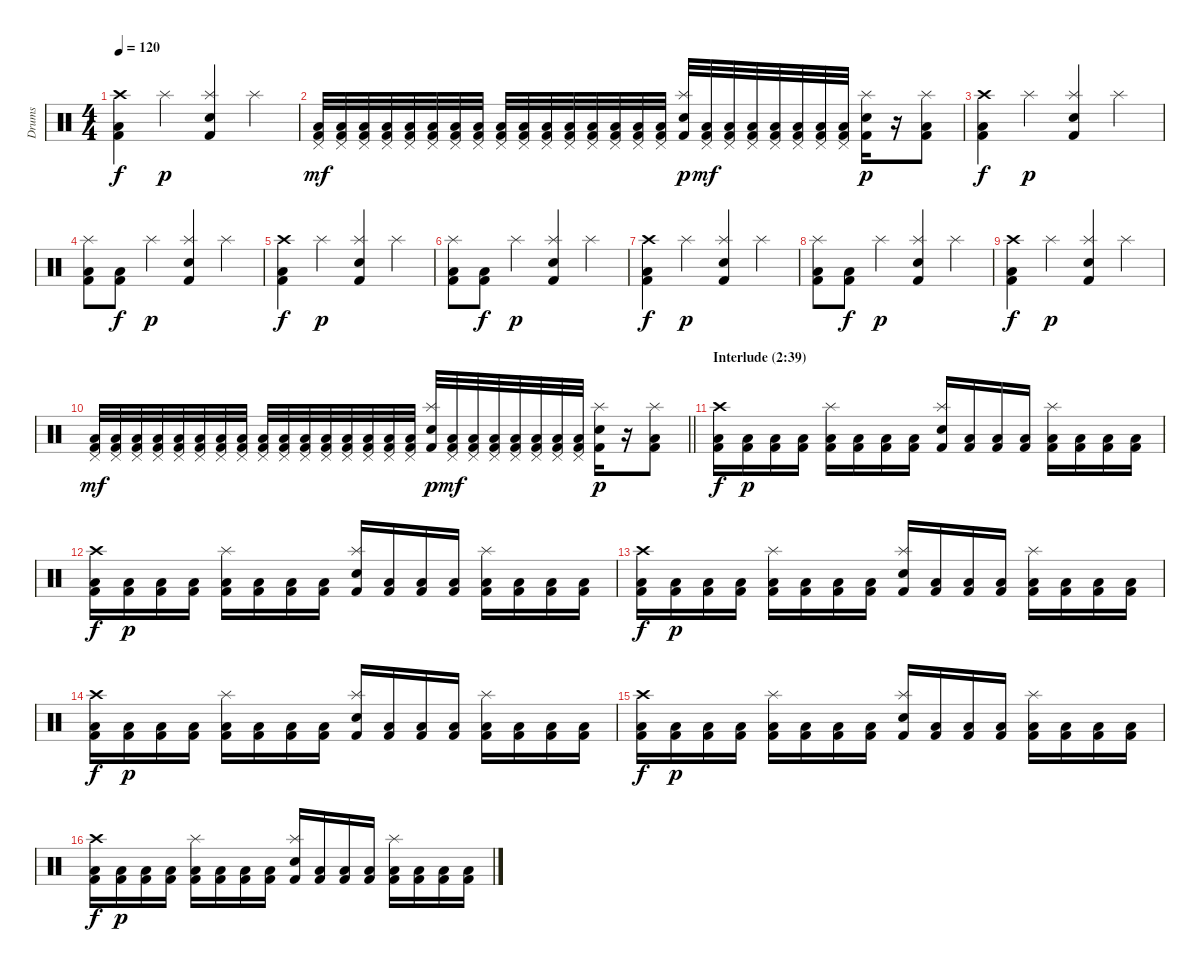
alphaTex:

\track ("Drums" "Drums") {instrument percussion}
\staff {score}
\articulation defaults
\ts (4 4)
\tempo 120
\clef neutral
\ks c
("Crash high (hit)" "Low Floor Tom (hit)" "Kick (hit) 2").4{dy f} "Splash (hit)".4{dy p} ("Splash (hit)" "Snare (hit) 2" "Kick (hit) 2").4 "Splash (hit)".4 |
("Pedal Hi-Hat (hit)" "Low Floor Tom (hit)" "Kick (hit) 2").32{dy mf} ("Pedal Hi-Hat (hit)" "Low Floor Tom (hit)" "Kick (hit) 2").32 ("Pedal Hi-Hat (hit)" "Low Floor Tom (hit)" "Kick (hit) 2").32 ("Pedal Hi-Hat (hit)" "Low Floor Tom (hit)" "Kick (hit) 2").32 ("Pedal Hi-Hat (hit)" "Low Floor Tom (hit)" "Kick (hit) 2").32 ("Pedal Hi-Hat (hit)" "Low Floor Tom (hit)" "Kick (hit) 2").32 ("Pedal Hi-Hat (hit)" "Low Floor Tom (hit)" "Kick (hit) 2").32 ("Pedal Hi-Hat (hit)" "Low Floor Tom (hit)" "Kick (hit) 2").32 ("Pedal Hi-Hat (hit)" "Low Floor Tom (hit)" "Kick (hit) 2").32 ("Pedal Hi-Hat (hit)" "Low Floor Tom (hit)" "Kick (hit) 2").32 ("Pedal Hi-Hat (hit)" "Low Floor Tom (hit)" "Kick (hit) 2").32 ("Pedal Hi-Hat (hit)" "Low Floor Tom (hit)" "Kick (hit) 2").32 ("Pedal Hi-Hat (hit)" "Low Floor Tom (hit)" "Kick (hit) 2").32 ("Pedal Hi-Hat (hit)" "Low Floor Tom (hit)" "Kick (hit) 2").32 ("Pedal Hi-Hat (hit)" "Low Floor Tom (hit)" "Kick (hit) 2").32 ("Pedal Hi-Hat (hit)" "Low Floor Tom (hit)" "Kick (hit) 2").32 ("Splash (hit)" "Snare (hit) 2" "Kick (hit) 2").32{dy p} ("Pedal Hi-Hat (hit)" "Low Floor Tom (hit)" "Kick (hit) 2").32{dy mf} ("Pedal Hi-Hat (hit)" "Low Floor Tom (hit)" "Kick (hit) 2").32 ("Pedal Hi-Hat (hit)" "Low Floor Tom (hit)" "Kick (hit) 2").32 ("Pedal Hi-Hat (hit)" "Low Floor Tom (hit)" "Kick (hit) 2").32 ("Pedal Hi-Hat (hit)" "Low Floor Tom (hit)" "Kick (hit) 2").32 ("Pedal Hi-Hat (hit)" "Low Floor Tom (hit)" "Kick (hit) 2").32 ("Pedal Hi-Hat (hit)" "Low Floor Tom (hit)" "Kick (hit) 2").32 ("Splash (hit)" "Snare (hit) 2" "Kick (hit) 2").16{dy p} r.16 ("Splash (hit)" "Low Floor Tom (hit)" "Kick (hit) 2").8 |
("Crash high (hit)" "Low Floor Tom (hit)" "Kick (hit) 2").4{dy f} "Splash (hit)".4{dy p} ("Splash (hit)" "Snare (hit) 2" "Kick (hit) 2").4 "Splash (hit)".4 |
("Splash (hit)" "Low Floor Tom (hit)" "Kick (hit) 2").8 ("Low Floor Tom (hit)" "Kick (hit) 2").8{dy f} "Splash (hit)".4{dy p} ("Splash (hit)" "Snare (hit) 2" "Kick (hit) 2").4 "Splash (hit)".4 |
("Crash high (hit)" "Low Floor Tom (hit)" "Kick (hit) 2").4{dy f} "Splash (hit)".4{dy p} ("Splash (hit)" "Snare (hit) 2" "Kick (hit) 2").4 "Splash (hit)".4 |
("Splash (hit)" "Low Floor Tom (hit)" "Kick (hit) 2").8 ("Low Floor Tom (hit)" "Kick (hit) 2").8{dy f} "Splash (hit)".4{dy p} ("Splash (hit)" "Snare (hit) 2" "Kick (hit) 2").4 "Splash (hit)".4 |
("Crash high (hit)" "Low Floor Tom (hit)" "Kick (hit) 2").4{dy f} "Splash (hit)".4{dy p} ("Splash (hit)" "Snare (hit) 2" "Kick (hit) 2").4 "Splash (hit)".4 |
("Splash (hit)" "Low Floor Tom (hit)" "Kick (hit) 2").8 ("Low Floor Tom (hit)" "Kick (hit) 2").8{dy f} "Splash (hit)".4{dy p} ("Splash (hit)" "Snare (hit) 2" "Kick (hit) 2").4 "Splash (hit)".4 |
("Crash high (hit)" "Low Floor Tom (hit)" "Kick (hit) 2").4{dy f} "Splash (hit)".4{dy p} ("Splash (hit)" "Snare (hit) 2" "Kick (hit) 2").4 "Splash (hit)".4 |
\barLineRight lightlight
("Pedal Hi-Hat (hit)" "Low Floor Tom (hit)" "Kick (hit) 2").32{dy mf} ("Pedal Hi-Hat (hit)" "Low Floor Tom (hit)" "Kick (hit) 2").32 ("Pedal Hi-Hat (hit)" "Low Floor Tom (hit)" "Kick (hit) 2").32 ("Pedal Hi-Hat (hit)" "Low Floor Tom (hit)" "Kick (hit) 2").32 ("Pedal Hi-Hat (hit)" "Low Floor Tom (hit)" "Kick (hit) 2").32 ("Pedal Hi-Hat (hit)" "Low Floor Tom (hit)" "Kick (hit) 2").32 ("Pedal Hi-Hat (hit)" "Low Floor Tom (hit)" "Kick (hit) 2").32 ("Pedal Hi-Hat (hit)" "Low Floor Tom (hit)" "Kick (hit) 2").32 ("Pedal Hi-Hat (hit)" "Low Floor Tom (hit)" "Kick (hit) 2").32 ("Pedal Hi-Hat (hit)" "Low Floor Tom (hit)" "Kick (hit) 2").32 ("Pedal Hi-Hat (hit)" "Low Floor Tom (hit)" "Kick (hit) 2").32 ("Pedal Hi-Hat (hit)" "Low Floor Tom (hit)" "Kick (hit) 2").32 ("Pedal Hi-Hat (hit)" "Low Floor Tom (hit)" "Kick (hit) 2").32 ("Pedal Hi-Hat (hit)" "Low Floor Tom (hit)" "Kick (hit) 2").32 ("Pedal Hi-Hat (hit)" "Low Floor Tom (hit)" "Kick (hit) 2").32 ("Pedal Hi-Hat (hit)" "Low Floor Tom (hit)" "Kick (hit) 2").32 ("Splash (hit)" "Snare (hit) 2" "Kick (hit) 2").32{dy p} ("Pedal Hi-Hat (hit)" "Low Floor Tom (hit)" "Kick (hit) 2").32{dy mf} ("Pedal Hi-Hat (hit)" "Low Floor Tom (hit)" "Kick (hit) 2").32 ("Pedal Hi-Hat (hit)" "Low Floor Tom (hit)" "Kick (hit) 2").32 ("Pedal Hi-Hat (hit)" "Low Floor Tom (hit)" "Kick (hit) 2").32 ("Pedal Hi-Hat (hit)" "Low Floor Tom (hit)" "Kick (hit) 2").32 ("Pedal Hi-Hat (hit)" "Low Floor Tom (hit)" "Kick (hit) 2").32 ("Pedal Hi-Hat (hit)" "Low Floor Tom (hit)" "Kick (hit) 2").32 ("Splash (hit)" "Snare (hit) 2" "Kick (hit) 2").16{dy p} r.16 ("Splash (hit)" "Low Floor Tom (hit)" "Kick (hit) 2").8 |
\section ("" "Interlude (2:39)")
("Crash high (hit)" "Low Floor Tom (hit)" "Kick (hit) 2").16{dy f} ("Low Floor Tom (hit)" "Kick (hit) 2").16{dy p} ("Low Floor Tom (hit)" "Kick (hit) 2").16 ("Low Floor Tom (hit)" "Kick (hit) 2").16 ("Splash (hit)" "Low Floor Tom (hit)" "Kick (hit) 2").16 ("Low Floor Tom (hit)" "Kick (hit) 2").16 ("Low Floor Tom (hit)" "Kick (hit) 2").16 ("Low Floor Tom (hit)" "Kick (hit) 2").16 ("Splash (hit)" "Snare (hit) 2" "Kick (hit) 2").16 ("Low Floor Tom (hit)" "Kick (hit) 2").16 ("Low Floor Tom (hit)" "Kick (hit) 2").16 ("Low Floor Tom (hit)" "Kick (hit) 2").16 ("Splash (hit)" "Low Floor Tom (hit)" "Kick (hit) 2").16 ("Low Floor Tom (hit)" "Kick (hit) 2").16 ("Low Floor Tom (hit)" "Kick (hit) 2").16 ("Low Floor Tom (hit)" "Kick (hit) 2").16 |
("Crash high (hit)" "Low Floor Tom (hit)" "Kick (hit) 2").16{dy f} ("Low Floor Tom (hit)" "Kick (hit) 2").16{dy p} ("Low Floor Tom (hit)" "Kick (hit) 2").16 ("Low Floor Tom (hit)" "Kick (hit) 2").16 ("Splash (hit)" "Low Floor Tom (hit)" "Kick (hit) 2").16 ("Low Floor Tom (hit)" "Kick (hit) 2").16 ("Low Floor Tom (hit)" "Kick (hit) 2").16 ("Low Floor Tom (hit)" "Kick (hit) 2").16 ("Splash (hit)" "Snare (hit) 2" "Kick (hit) 2").16 ("Low Floor Tom (hit)" "Kick (hit) 2").16 ("Low Floor Tom (hit)" "Kick (hit) 2").16 ("Low Floor Tom (hit)" "Kick (hit) 2").16 ("Splash (hit)" "Low Floor Tom (hit)" "Kick (hit) 2").16 ("Low Floor Tom (hit)" "Kick (hit) 2").16 ("Low Floor Tom (hit)" "Kick (hit) 2").16 ("Low Floor Tom (hit)" "Kick (hit) 2").16 |
("Crash high (hit)" "Low Floor Tom (hit)" "Kick (hit) 2").16{dy f} ("Low Floor Tom (hit)" "Kick (hit) 2").16{dy p} ("Low Floor Tom (hit)" "Kick (hit) 2").16 ("Low Floor Tom (hit)" "Kick (hit) 2").16 ("Splash (hit)" "Low Floor Tom (hit)" "Kick (hit) 2").16 ("Low Floor Tom (hit)" "Kick (hit) 2").16 ("Low Floor Tom (hit)" "Kick (hit) 2").16 ("Low Floor Tom (hit)" "Kick (hit) 2").16 ("Splash (hit)" "Snare (hit) 2" "Kick (hit) 2").16 ("Low Floor Tom (hit)" "Kick (hit) 2").16 ("Low Floor Tom (hit)" "Kick (hit) 2").16 ("Low Floor Tom (hit)" "Kick (hit) 2").16 ("Splash (hit)" "Low Floor Tom (hit)" "Kick (hit) 2").16 ("Low Floor Tom (hit)" "Kick (hit) 2").16 ("Low Floor Tom (hit)" "Kick (hit) 2").16 ("Low Floor Tom (hit)" "Kick (hit) 2").16 |
("Crash high (hit)" "Low Floor Tom (hit)" "Kick (hit) 2").16{dy f} ("Low Floor Tom (hit)" "Kick (hit) 2").16{dy p} ("Low Floor Tom (hit)" "Kick (hit) 2").16 ("Low Floor Tom (hit)" "Kick (hit) 2").16 ("Splash (hit)" "Low Floor Tom (hit)" "Kick (hit) 2").16 ("Low Floor Tom (hit)" "Kick (hit) 2").16 ("Low Floor Tom (hit)" "Kick (hit) 2").16 ("Low Floor Tom (hit)" "Kick (hit) 2").16 ("Splash (hit)" "Snare (hit) 2" "Kick (hit) 2").16 ("Low Floor Tom (hit)" "Kick (hit) 2").16 ("Low Floor Tom (hit)" "Kick (hit) 2").16 ("Low Floor Tom (hit)" "Kick (hit) 2").16 ("Splash (hit)" "Low Floor Tom (hit)" "Kick (hit) 2").16 ("Low Floor Tom (hit)" "Kick (hit) 2").16 ("Low Floor Tom (hit)" "Kick (hit) 2").16 ("Low Floor Tom (hit)" "Kick (hit) 2").16 |
("Crash high (hit)" "Low Floor Tom (hit)" "Kick (hit) 2").16{dy f} ("Low Floor Tom (hit)" "Kick (hit) 2").16{dy p} ("Low Floor Tom (hit)" "Kick (hit) 2").16 ("Low Floor Tom (hit)" "Kick (hit) 2").16 ("Splash (hit)" "Low Floor Tom (hit)" "Kick (hit) 2").16 ("Low Floor Tom (hit)" "Kick (hit) 2").16 ("Low Floor Tom (hit)" "Kick (hit) 2").16 ("Low Floor Tom (hit)" "Kick (hit) 2").16 ("Splash (hit)" "Snare (hit) 2" "Kick (hit) 2").16 ("Low Floor Tom (hit)" "Kick (hit) 2").16 ("Low Floor Tom (hit)" "Kick (hit) 2").16 ("Low Floor Tom (hit)" "Kick (hit) 2").16 ("Splash (hit)" "Low Floor Tom (hit)" "Kick (hit) 2").16 ("Low Floor Tom (hit)" "Kick (hit) 2").16 ("Low Floor Tom (hit)" "Kick (hit) 2").16 ("Low Floor Tom (hit)" "Kick (hit) 2").16 |
("Crash high (hit)" "Low Floor Tom (hit)" "Kick (hit) 2").16{dy f} ("Low Floor Tom (hit)" "Kick (hit) 2").16{dy p} ("Low Floor Tom (hit)" "Kick (hit) 2").16 ("Low Floor Tom (hit)" "Kick (hit) 2").16 ("Splash (hit)" "Low Floor Tom (hit)" "Kick (hit) 2").16 ("Low Floor Tom (hit)" "Kick (hit) 2").16 ("Low Floor Tom (hit)" "Kick (hit) 2").16 ("Low Floor Tom (hit)" "Kick (hit) 2").16 ("Splash (hit)" "Snare (hit) 2" "Kick (hit) 2").16 ("Low Floor Tom (hit)" "Kick (hit) 2").16 ("Low Floor Tom (hit)" "Kick (hit) 2").16 ("Low Floor Tom (hit)" "Kick (hit) 2").16 ("Splash (hit)" "Low Floor Tom (hit)" "Kick (hit) 2").16 ("Low Floor Tom (hit)" "Kick (hit) 2").16 ("Low Floor Tom (hit)" "Kick (hit) 2").16 ("Low Floor Tom (hit)" "Kick (hit) 2").16
